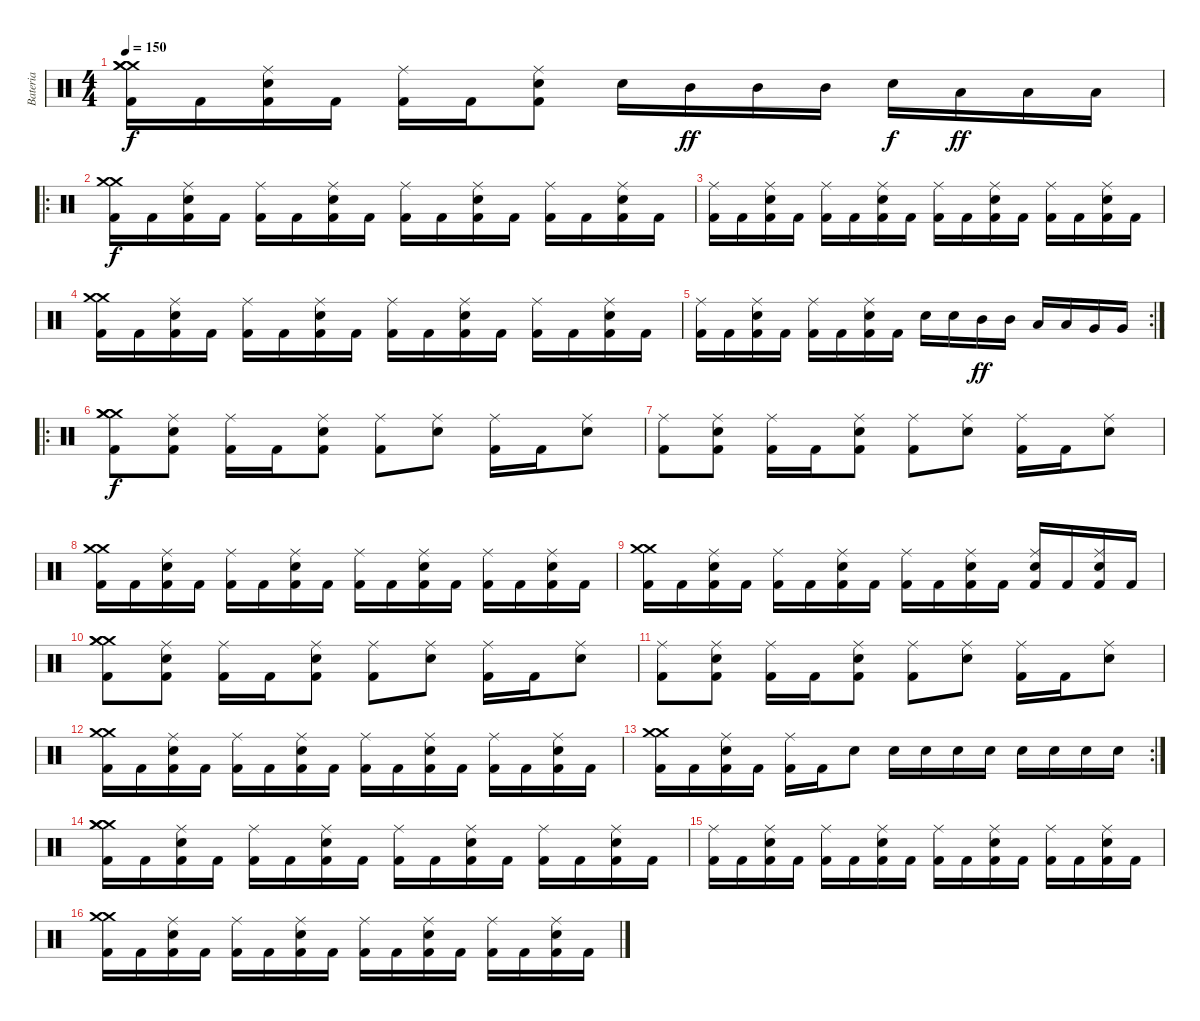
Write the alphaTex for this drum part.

\track ("Bateria" "Bateria") {instrument percussion}
\staff {score}
\articulation defaults
\ts (4 4)
\tempo 150
\clef neutral
\ks c
("Crash medium (hit)" "Crash medium (hit)" "Crash medium (hit)" "Kick (hit) 2").16{dy f} "Kick (hit) 2".16 ("Ride (middle)" "Snare (hit) 2" "Kick (hit) 2").16 "Kick (hit) 2".16 ("Ride (middle)" "Kick (hit) 2").16 "Kick (hit) 2".16 ("Ride (middle)" "Snare (hit) 2" "Kick (hit) 2").8 "Snare (hit) 2".16 "Mid Tom (hit)".16{dy ff} "Mid Tom (hit)".16 "Mid Tom (hit)".16 "Snare (hit) 2".16{dy f} "Low Tom (hit)".16{dy ff} "Low Tom (hit)".16 "Low Tom (hit)".16 |
\ro
("Crash medium (hit)" "Crash medium (hit)" "Kick (hit) 2").16{dy f} "Kick (hit) 2".16 ("Ride (middle)" "Snare (hit) 2" "Kick (hit) 2").16 "Kick (hit) 2".16 ("Ride (middle)" "Kick (hit) 2").16 "Kick (hit) 2".16 ("Ride (middle)" "Snare (hit) 2" "Kick (hit) 2").16 "Kick (hit) 2".16 ("Ride (middle)" "Kick (hit) 2").16 "Kick (hit) 2".16 ("Ride (middle)" "Snare (hit) 2" "Kick (hit) 2").16 "Kick (hit) 2".16 ("Ride (middle)" "Kick (hit) 2").16 "Kick (hit) 2".16 ("Ride (middle)" "Snare (hit) 2" "Kick (hit) 2").16 "Kick (hit) 2".16 |
("Ride (middle)" "Kick (hit) 2").16 "Kick (hit) 2".16 ("Ride (middle)" "Snare (hit) 2" "Kick (hit) 2").16 "Kick (hit) 2".16 ("Ride (middle)" "Kick (hit) 2").16 "Kick (hit) 2".16 ("Ride (middle)" "Snare (hit) 2" "Kick (hit) 2").16 "Kick (hit) 2".16 ("Ride (middle)" "Kick (hit) 2").16 "Kick (hit) 2".16 ("Ride (middle)" "Snare (hit) 2" "Kick (hit) 2").16 "Kick (hit) 2".16 ("Ride (middle)" "Kick (hit) 2").16 "Kick (hit) 2".16 ("Ride (middle)" "Snare (hit) 2" "Kick (hit) 2").16 "Kick (hit) 2".16 |
("Crash medium (hit)" "Crash medium (hit)" "Kick (hit) 2").16 "Kick (hit) 2".16 ("Ride (middle)" "Snare (hit) 2" "Kick (hit) 2").16 "Kick (hit) 2".16 ("Ride (middle)" "Kick (hit) 2").16 "Kick (hit) 2".16 ("Ride (middle)" "Snare (hit) 2" "Kick (hit) 2").16 "Kick (hit) 2".16 ("Ride (middle)" "Kick (hit) 2").16 "Kick (hit) 2".16 ("Ride (middle)" "Snare (hit) 2" "Kick (hit) 2").16 "Kick (hit) 2".16 ("Ride (middle)" "Kick (hit) 2").16 "Kick (hit) 2".16 ("Ride (middle)" "Snare (hit) 2" "Kick (hit) 2").16 "Kick (hit) 2".16 |
\rc 2
("Ride (middle)" "Kick (hit) 2").16 "Kick (hit) 2".16 ("Ride (middle)" "Snare (hit) 2" "Kick (hit) 2").16 "Kick (hit) 2".16 ("Ride (middle)" "Kick (hit) 2").16 "Kick (hit) 2".16 ("Ride (middle)" "Snare (hit) 2" "Kick (hit) 2").16 "Kick (hit) 2".16 "Snare (hit) 2".16 "Snare (hit) 2".16 "Mid Tom (hit)".16{dy ff} "Mid Tom (hit)".16 "Low Tom (hit)".16 "Low Tom (hit)".16 "Very Low Tom (hit)".16 "Very Low Tom (hit)".16 |
\ro
("Crash medium (hit)" "Crash medium (hit)" "Crash medium (hit)" "Kick (hit) 2").8{dy f} ("Ride (middle)" "Snare (hit) 2" "Kick (hit) 2").8 ("Ride (middle)" "Kick (hit) 2").16 "Kick (hit) 2".16 ("Ride (middle)" "Snare (hit) 2" "Kick (hit) 2").8 ("Ride (middle)" "Kick (hit) 2").8 ("Ride (middle)" "Snare (hit) 2").8 ("Ride (middle)" "Kick (hit) 2").16 "Kick (hit) 2".16 ("Ride (middle)" "Snare (hit) 2").8 |
("Ride (middle)" "Kick (hit) 2").8 ("Ride (middle)" "Snare (hit) 2" "Kick (hit) 2").8 ("Ride (middle)" "Kick (hit) 2").16 "Kick (hit) 2".16 ("Ride (middle)" "Snare (hit) 2" "Kick (hit) 2").8 ("Ride (middle)" "Kick (hit) 2").8 ("Ride (middle)" "Snare (hit) 2").8 ("Ride (middle)" "Kick (hit) 2").16 "Kick (hit) 2".16 ("Ride (middle)" "Snare (hit) 2").8 |
("Crash medium (hit)" "Crash medium (hit)" "Kick (hit) 2").16 "Kick (hit) 2".16 ("Ride (middle)" "Snare (hit) 2" "Kick (hit) 2").16 "Kick (hit) 2".16 ("Ride (middle)" "Kick (hit) 2").16 "Kick (hit) 2".16 ("Ride (middle)" "Snare (hit) 2" "Kick (hit) 2").16 "Kick (hit) 2".16 ("Ride (middle)" "Kick (hit) 2").16 "Kick (hit) 2".16 ("Ride (middle)" "Snare (hit) 2" "Kick (hit) 2").16 "Kick (hit) 2".16 ("Ride (middle)" "Kick (hit) 2").16 "Kick (hit) 2".16 ("Ride (middle)" "Snare (hit) 2" "Kick (hit) 2").16 "Kick (hit) 2".16 |
("Crash medium (hit)" "Crash medium (hit)" "Kick (hit) 2").16 "Kick (hit) 2".16 ("Ride (middle)" "Snare (hit) 2" "Kick (hit) 2").16 "Kick (hit) 2".16 ("Ride (middle)" "Kick (hit) 2").16 "Kick (hit) 2".16 ("Ride (middle)" "Snare (hit) 2" "Kick (hit) 2").16 "Kick (hit) 2".16 ("Ride (middle)" "Kick (hit) 2").16 "Kick (hit) 2".16 ("Ride (middle)" "Snare (hit) 2" "Kick (hit) 2").16 "Kick (hit) 2".16 ("Ride (middle)" "Snare (hit) 2" "Kick (hit) 2").16 "Kick (hit) 2".16 ("Ride (middle)" "Snare (hit) 2" "Kick (hit) 2").16 "Kick (hit) 2".16 |
("Crash medium (hit)" "Crash medium (hit)" "Crash medium (hit)" "Kick (hit) 2").8 ("Ride (middle)" "Snare (hit) 2" "Kick (hit) 2").8 ("Ride (middle)" "Kick (hit) 2").16 "Kick (hit) 2".16 ("Ride (middle)" "Snare (hit) 2" "Kick (hit) 2").8 ("Ride (middle)" "Kick (hit) 2").8 ("Ride (middle)" "Snare (hit) 2").8 ("Ride (middle)" "Kick (hit) 2").16 "Kick (hit) 2".16 ("Ride (middle)" "Snare (hit) 2").8 |
("Ride (middle)" "Kick (hit) 2").8 ("Ride (middle)" "Snare (hit) 2" "Kick (hit) 2").8 ("Ride (middle)" "Kick (hit) 2").16 "Kick (hit) 2".16 ("Ride (middle)" "Snare (hit) 2" "Kick (hit) 2").8 ("Ride (middle)" "Kick (hit) 2").8 ("Ride (middle)" "Snare (hit) 2").8 ("Ride (middle)" "Kick (hit) 2").16 "Kick (hit) 2".16 ("Ride (middle)" "Snare (hit) 2").8 |
("Crash medium (hit)" "Crash medium (hit)" "Kick (hit) 2").16 "Kick (hit) 2".16 ("Ride (middle)" "Snare (hit) 2" "Kick (hit) 2").16 "Kick (hit) 2".16 ("Ride (middle)" "Kick (hit) 2").16 "Kick (hit) 2".16 ("Ride (middle)" "Snare (hit) 2" "Kick (hit) 2").16 "Kick (hit) 2".16 ("Ride (middle)" "Kick (hit) 2").16 "Kick (hit) 2".16 ("Ride (middle)" "Snare (hit) 2" "Kick (hit) 2").16 "Kick (hit) 2".16 ("Ride (middle)" "Kick (hit) 2").16 "Kick (hit) 2".16 ("Ride (middle)" "Snare (hit) 2" "Kick (hit) 2").16 "Kick (hit) 2".16 |
\rc 2
("Crash medium (hit)" "Crash medium (hit)" "Kick (hit) 2").16 "Kick (hit) 2".16 ("Ride (middle)" "Snare (hit) 2" "Kick (hit) 2").16 "Kick (hit) 2".16 ("Ride (middle)" "Kick (hit) 2").16 "Kick (hit) 2".16 "Snare (hit) 2".8 "Snare (hit) 2".16 "Snare (hit) 2".16 "Snare (hit) 2".16 "Snare (hit) 2".16 "Snare (hit) 2".16 "Snare (hit) 2".16 "Snare (hit) 2".16 "Snare (hit) 2".16 |
("Crash medium (hit)" "Crash medium (hit)" "Crash medium (hit)" "Kick (hit) 2").16 "Kick (hit) 2".16 ("Ride (middle)" "Snare (hit) 2" "Kick (hit) 2").16 "Kick (hit) 2".16 ("Ride (middle)" "Kick (hit) 2").16 "Kick (hit) 2".16 ("Ride (middle)" "Snare (hit) 2" "Kick (hit) 2").16 "Kick (hit) 2".16 ("Ride (middle)" "Kick (hit) 2").16 "Kick (hit) 2".16 ("Ride (middle)" "Snare (hit) 2" "Kick (hit) 2").16 "Kick (hit) 2".16 ("Ride (middle)" "Kick (hit) 2").16 "Kick (hit) 2".16 ("Ride (middle)" "Snare (hit) 2" "Kick (hit) 2").16 "Kick (hit) 2".16 |
("Ride (middle)" "Kick (hit) 2").16 "Kick (hit) 2".16 ("Ride (middle)" "Snare (hit) 2" "Kick (hit) 2").16 "Kick (hit) 2".16 ("Ride (middle)" "Kick (hit) 2").16 "Kick (hit) 2".16 ("Ride (middle)" "Snare (hit) 2" "Kick (hit) 2").16 "Kick (hit) 2".16 ("Ride (middle)" "Kick (hit) 2").16 "Kick (hit) 2".16 ("Ride (middle)" "Snare (hit) 2" "Kick (hit) 2").16 "Kick (hit) 2".16 ("Ride (middle)" "Kick (hit) 2").16 "Kick (hit) 2".16 ("Ride (middle)" "Snare (hit) 2" "Kick (hit) 2").16 "Kick (hit) 2".16 |
("Crash medium (hit)" "Crash medium (hit)" "Kick (hit) 2").16 "Kick (hit) 2".16 ("Ride (middle)" "Snare (hit) 2" "Kick (hit) 2").16 "Kick (hit) 2".16 ("Ride (middle)" "Kick (hit) 2").16 "Kick (hit) 2".16 ("Ride (middle)" "Snare (hit) 2" "Kick (hit) 2").16 "Kick (hit) 2".16 ("Ride (middle)" "Kick (hit) 2").16 "Kick (hit) 2".16 ("Ride (middle)" "Snare (hit) 2" "Kick (hit) 2").16 "Kick (hit) 2".16 ("Ride (middle)" "Kick (hit) 2").16 "Kick (hit) 2".16 ("Ride (middle)" "Snare (hit) 2" "Kick (hit) 2").16 "Kick (hit) 2".16
